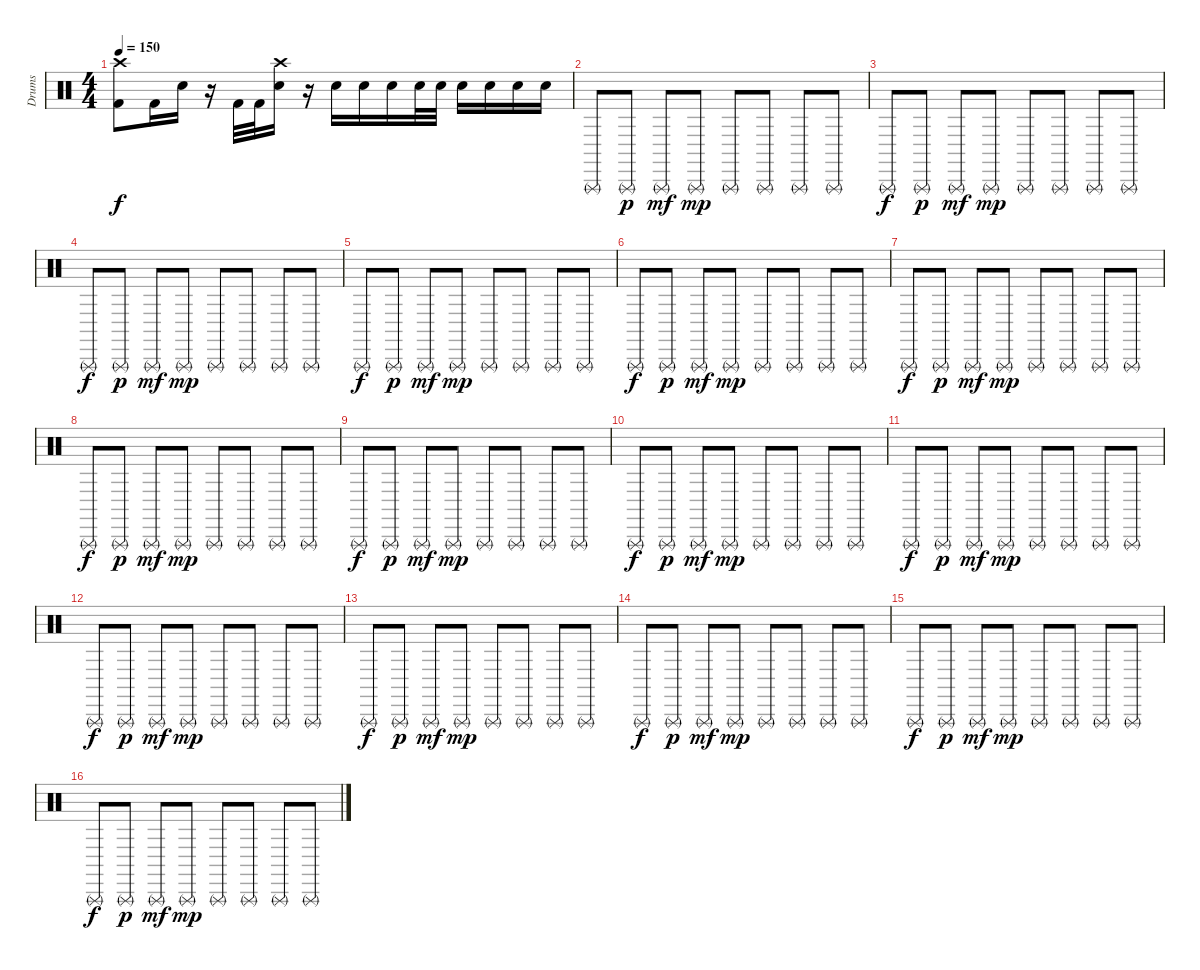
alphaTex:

\track ("Drums" "Drums") {instrument percussion}
\staff {score}
\articulation defaults
\ts (4 4)
\tempo 150
\clef neutral
\ks c
("Crash high (hit)" "Kick (hit) 2").8{dy f} "Kick (hit) 2".16 "Electric Snare (hit)".16 r.16 "Kick (hit) 2".32 "Kick (hit) 2".32 ("Crash high (hit)" "Electric Snare (hit)").16 r.16 "Electric Snare (hit)".16 "Electric Snare (hit)".16 "Electric Snare (hit)".16 "Electric Snare (hit)".32 "Electric Snare (hit)".32 "Electric Snare (hit)".16 "Electric Snare (hit)".16 "Electric Snare (hit)".16 "Electric Snare (hit)".16 |
"Triangle (rnute)".8 "Triangle (rnute)".8{dy p} "Triangle (rnute)".8{dy mf} "Triangle (rnute)".8{dy mp} "Triangle (rnute)".8 "Triangle (rnute)".8 "Triangle (rnute)".8 "Triangle (rnute)".8 |
"Triangle (rnute)".8{dy f} "Triangle (rnute)".8{dy p} "Triangle (rnute)".8{dy mf} "Triangle (rnute)".8{dy mp} "Triangle (rnute)".8 "Triangle (rnute)".8 "Triangle (rnute)".8 "Triangle (rnute)".8 |
"Triangle (rnute)".8{dy f} "Triangle (rnute)".8{dy p} "Triangle (rnute)".8{dy mf} "Triangle (rnute)".8{dy mp} "Triangle (rnute)".8 "Triangle (rnute)".8 "Triangle (rnute)".8 "Triangle (rnute)".8 |
"Triangle (rnute)".8{dy f} "Triangle (rnute)".8{dy p} "Triangle (rnute)".8{dy mf} "Triangle (rnute)".8{dy mp} "Triangle (rnute)".8 "Triangle (rnute)".8 "Triangle (rnute)".8 "Triangle (rnute)".8 |
"Triangle (rnute)".8{dy f} "Triangle (rnute)".8{dy p} "Triangle (rnute)".8{dy mf} "Triangle (rnute)".8{dy mp} "Triangle (rnute)".8 "Triangle (rnute)".8 "Triangle (rnute)".8 "Triangle (rnute)".8 |
"Triangle (rnute)".8{dy f} "Triangle (rnute)".8{dy p} "Triangle (rnute)".8{dy mf} "Triangle (rnute)".8{dy mp} "Triangle (rnute)".8 "Triangle (rnute)".8 "Triangle (rnute)".8 "Triangle (rnute)".8 |
"Triangle (rnute)".8{dy f} "Triangle (rnute)".8{dy p} "Triangle (rnute)".8{dy mf} "Triangle (rnute)".8{dy mp} "Triangle (rnute)".8 "Triangle (rnute)".8 "Triangle (rnute)".8 "Triangle (rnute)".8 |
"Triangle (rnute)".8{dy f} "Triangle (rnute)".8{dy p} "Triangle (rnute)".8{dy mf} "Triangle (rnute)".8{dy mp} "Triangle (rnute)".8 "Triangle (rnute)".8 "Triangle (rnute)".8 "Triangle (rnute)".8 |
"Triangle (rnute)".8{dy f} "Triangle (rnute)".8{dy p} "Triangle (rnute)".8{dy mf} "Triangle (rnute)".8{dy mp} "Triangle (rnute)".8 "Triangle (rnute)".8 "Triangle (rnute)".8 "Triangle (rnute)".8 |
"Triangle (rnute)".8{dy f} "Triangle (rnute)".8{dy p} "Triangle (rnute)".8{dy mf} "Triangle (rnute)".8{dy mp} "Triangle (rnute)".8 "Triangle (rnute)".8 "Triangle (rnute)".8 "Triangle (rnute)".8 |
"Triangle (rnute)".8{dy f} "Triangle (rnute)".8{dy p} "Triangle (rnute)".8{dy mf} "Triangle (rnute)".8{dy mp} "Triangle (rnute)".8 "Triangle (rnute)".8 "Triangle (rnute)".8 "Triangle (rnute)".8 |
"Triangle (rnute)".8{dy f} "Triangle (rnute)".8{dy p} "Triangle (rnute)".8{dy mf} "Triangle (rnute)".8{dy mp} "Triangle (rnute)".8 "Triangle (rnute)".8 "Triangle (rnute)".8 "Triangle (rnute)".8 |
"Triangle (rnute)".8{dy f} "Triangle (rnute)".8{dy p} "Triangle (rnute)".8{dy mf} "Triangle (rnute)".8{dy mp} "Triangle (rnute)".8 "Triangle (rnute)".8 "Triangle (rnute)".8 "Triangle (rnute)".8 |
"Triangle (rnute)".8{dy f} "Triangle (rnute)".8{dy p} "Triangle (rnute)".8{dy mf} "Triangle (rnute)".8{dy mp} "Triangle (rnute)".8 "Triangle (rnute)".8 "Triangle (rnute)".8 "Triangle (rnute)".8 |
"Triangle (rnute)".8{dy f} "Triangle (rnute)".8{dy p} "Triangle (rnute)".8{dy mf} "Triangle (rnute)".8{dy mp} "Triangle (rnute)".8 "Triangle (rnute)".8 "Triangle (rnute)".8 "Triangle (rnute)".8
